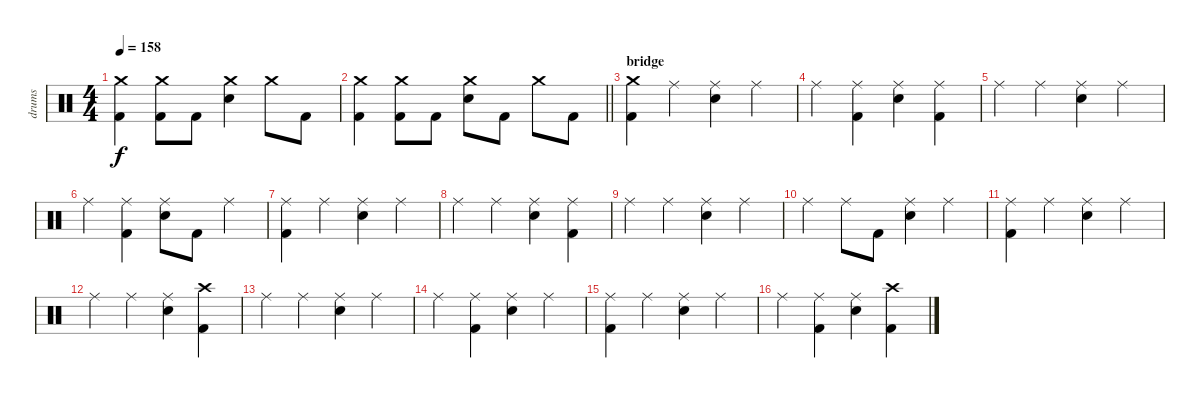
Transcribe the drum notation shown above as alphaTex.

\track ("drums" "drums") {instrument percussion}
\staff {score}
\articulation defaults
\ts (4 4)
\tempo 158
\clef neutral
\ks c
("Crash medium (hit)" "Kick (hit) 2").4{dy f} ("Crash medium (hit)" "Kick (hit) 2").8 "Kick (hit) 2".8 ("Crash medium (hit)" "Electric Snare (hit)").4 "Crash medium (hit)".8 "Kick (hit) 2".8 |
\barLineRight lightlight
("Crash medium (hit)" "Kick (hit) 2").4 ("Crash medium (hit)" "Kick (hit) 2").8 "Kick (hit) 2".8 ("Crash medium (hit)" "Electric Snare (hit)").8 "Kick (hit) 2".8 "Crash medium (hit)".8 "Kick (hit) 2".8 |
\section ("" "bridge")
("Crash medium (hit)" "Kick (hit) 2").4 "Ride (middle)".4 ("Ride (middle)" "Electric Snare (hit)").4 "Ride (middle)".4 |
"Ride (middle)".4 ("Ride (middle)" "Kick (hit) 2").4 ("Ride (middle)" "Electric Snare (hit)").4 ("Ride (middle)" "Kick (hit) 2").4 |
"Ride (middle)".4 "Ride (middle)".4 ("Ride (middle)" "Electric Snare (hit)").4 "Ride (middle)".4 |
"Ride (middle)".4 ("Ride (middle)" "Kick (hit) 2").4 ("Ride (middle)" "Electric Snare (hit)").8 "Kick (hit) 2".8 "Ride (middle)".4 |
("Ride (middle)" "Kick (hit) 2").4 "Ride (middle)".4 ("Ride (middle)" "Electric Snare (hit)").4 "Ride (middle)".4 |
"Ride (middle)".4 "Ride (middle)".4 ("Ride (middle)" "Electric Snare (hit)").4 ("Ride (middle)" "Kick (hit) 2").4 |
"Ride (middle)".4 "Ride (middle)".4 ("Ride (middle)" "Electric Snare (hit)").4 "Ride (middle)".4 |
"Ride (middle)".4 "Ride (middle)".8 "Kick (hit) 2".8 ("Ride (middle)" "Electric Snare (hit)").4 "Ride (middle)".4 |
("Ride (middle)" "Kick (hit) 2").4 "Ride (middle)".4 ("Ride (middle)" "Electric Snare (hit)").4 "Ride (middle)".4 |
"Ride (middle)".4 "Ride (middle)".4 ("Ride (middle)" "Electric Snare (hit)").4 ("Crash high (hit)" "Kick (hit) 2").4 |
"Ride (middle)".4 "Ride (middle)".4 ("Ride (middle)" "Electric Snare (hit)").4 "Ride (middle)".4 |
"Ride (middle)".4 ("Ride (middle)" "Kick (hit) 2").4 ("Ride (middle)" "Electric Snare (hit)").4 "Ride (middle)".4 |
("Ride (middle)" "Kick (hit) 2").4 "Ride (middle)".4 ("Ride (middle)" "Electric Snare (hit)").4 "Ride (middle)".4 |
"Ride (middle)".4 ("Ride (middle)" "Kick (hit) 2").4 ("Ride (middle)" "Electric Snare (hit)").4 ("Crash high (hit)" "Kick (hit) 2").4
